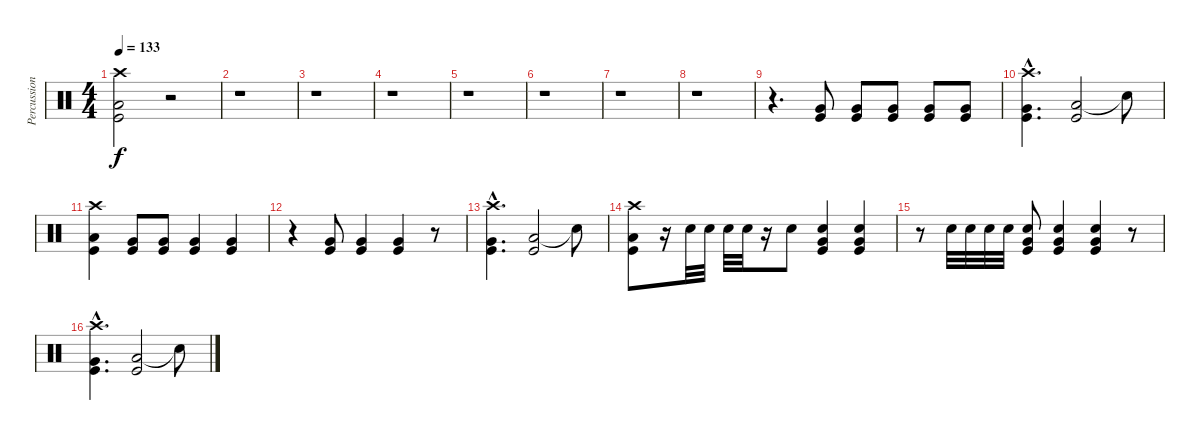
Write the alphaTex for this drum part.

\track ("Percussion" "Percussion") {instrument percussion}
\staff {score}
\articulation defaults
\ts (4 4)
\tempo 133
\clef neutral
\ks c
("Crash high (hit)" "Low Floor Tom (hit)" "Kick (hit)").2{dy f} r.2 |
r.1 |
r.1 |
r.1 |
r.1 |
r.1 |
r.1 |
r.1 |
r.4{d} ("Very Low Tom (hit)" "Kick (hit)").8 ("Very Low Tom (hit)" "Kick (hit)").8 ("Very Low Tom (hit)" "Kick (hit)").8 ("Very Low Tom (hit)" "Kick (hit)").8 ("Very Low Tom (hit)" "Kick (hit)").8 |
("Crash high (hit)"{hac} "Very Low Tom (hit)"{hac} "Kick (hit)"{hac}).4{d} ("Low Floor Tom (hit)" "Kick (hit)").2 "Snare (hit)"{t}.8 |
("Crash high (hit)" "Low Floor Tom (hit)" "Kick (hit)").4 ("Very Low Tom (hit)" "Kick (hit)").8 ("Very Low Tom (hit)" "Kick (hit)").8 ("Very Low Tom (hit)" "Kick (hit)").4 ("Very Low Tom (hit)" "Kick (hit)").4 |
r.4 ("Very Low Tom (hit)" "Kick (hit)").8 ("Very Low Tom (hit)" "Kick (hit)").4 ("Very Low Tom (hit)" "Kick (hit)").4 r.8 |
("Crash high (hit)"{hac} "Very Low Tom (hit)"{hac} "Kick (hit)"{hac}).4{d} ("Low Floor Tom (hit)" "Kick (hit)").2 "Snare (hit)"{t}.8 |
("Crash high (hit)" "Low Floor Tom (hit)" "Kick (hit)").8 r.16 "Snare (hit) 2".32 "Snare (hit) 2".32 "Snare (hit) 2".32 "Snare (hit) 2".32 r.16 "Snare (hit) 2".8 ("Snare (hit) 2" "Very Low Tom (hit)" "Kick (hit)").4 ("Snare (hit) 2" "Very Low Tom (hit)" "Kick (hit)").4 |
r.8 "Snare (hit) 2".32 "Snare (hit) 2".32 "Snare (hit) 2".32 "Snare (hit) 2".32 ("Snare (hit) 2" "Very Low Tom (hit)" "Kick (hit)").8 ("Snare (hit) 2" "Very Low Tom (hit)" "Kick (hit)").4 ("Snare (hit) 2" "Very Low Tom (hit)" "Kick (hit)").4 r.8 |
("Crash high (hit)"{hac} "Very Low Tom (hit)"{hac} "Kick (hit)"{hac}).4{d} ("Low Floor Tom (hit)" "Kick (hit)").2 "Snare (hit)"{t}.8
